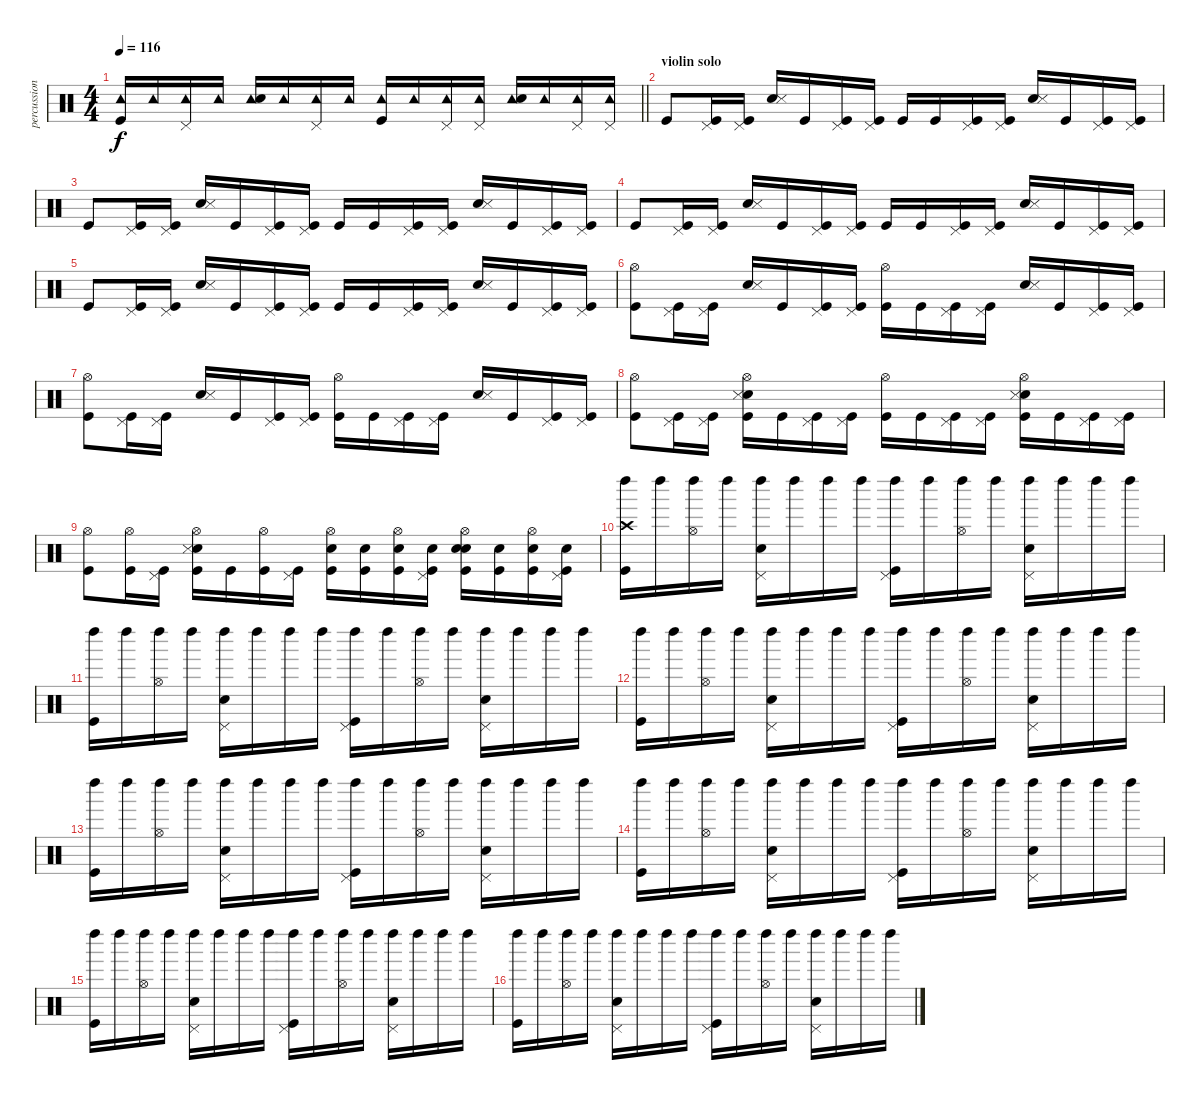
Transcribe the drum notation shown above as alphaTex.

\track ("percussion" "percussion") {instrument percussion}
\staff {score}
\articulation defaults
\ts (4 4)
\tempo 116
\clef neutral
\barLineRight lightlight
\ks c
("Tambourine (hit)" "Kick (hit)").16{dy f} "Tambourine (hit)".16 ("Tambourine (hit)" "Pedal Hi-Hat (hit)").16 "Tambourine (hit)".16 ("Tambourine (hit)" "Electric Snare (hit)").16 "Tambourine (hit)".16 ("Tambourine (hit)" "Pedal Hi-Hat (hit)").16 "Tambourine (hit)".16 ("Tambourine (hit)" "Kick (hit)").16 "Tambourine (hit)".16 ("Tambourine (hit)" "Pedal Hi-Hat (hit)").16 ("Tambourine (hit)" "Pedal Hi-Hat (hit)").16 ("Tambourine (hit)" "Electric Snare (hit)").16 "Tambourine (hit)".16 ("Tambourine (hit)" "Pedal Hi-Hat (hit)").16 ("Tambourine (hit)" "Pedal Hi-Hat (hit)").16 |
\section ("" "violin solo")
"Kick (hit)".8 ("Pedal Hi-Hat (hit)" "Kick (hit)").16 ("Pedal Hi-Hat (hit)" "Kick (hit)").16 ("Hand Clap (hit)" "Snare (side stick) 3").16 "Kick (hit)".16 ("Pedal Hi-Hat (hit)" "Kick (hit)").16 ("Pedal Hi-Hat (hit)" "Kick (hit)").16 "Kick (hit)".16 "Kick (hit)".16 ("Pedal Hi-Hat (hit)" "Kick (hit)").16 ("Pedal Hi-Hat (hit)" "Kick (hit)").16 ("Hand Clap (hit)" "Snare (side stick) 3").16 "Kick (hit)".16 ("Pedal Hi-Hat (hit)" "Kick (hit)").16 ("Pedal Hi-Hat (hit)" "Kick (hit)").16 |
"Kick (hit)".8 ("Pedal Hi-Hat (hit)" "Kick (hit)").16 ("Pedal Hi-Hat (hit)" "Kick (hit)").16 ("Hand Clap (hit)" "Snare (side stick) 3").16 "Kick (hit)".16 ("Pedal Hi-Hat (hit)" "Kick (hit)").16 ("Pedal Hi-Hat (hit)" "Kick (hit)").16 "Kick (hit)".16 "Kick (hit)".16 ("Pedal Hi-Hat (hit)" "Kick (hit)").16 ("Pedal Hi-Hat (hit)" "Kick (hit)").16 ("Hand Clap (hit)" "Snare (side stick) 3").16 "Kick (hit)".16 ("Pedal Hi-Hat (hit)" "Kick (hit)").16 ("Pedal Hi-Hat (hit)" "Kick (hit)").16 |
"Kick (hit)".8 ("Pedal Hi-Hat (hit)" "Kick (hit)").16 ("Pedal Hi-Hat (hit)" "Kick (hit)").16 ("Hand Clap (hit)" "Snare (side stick) 3").16 "Kick (hit)".16 ("Pedal Hi-Hat (hit)" "Kick (hit)").16 ("Pedal Hi-Hat (hit)" "Kick (hit)").16 "Kick (hit)".16 "Kick (hit)".16 ("Pedal Hi-Hat (hit)" "Kick (hit)").16 ("Pedal Hi-Hat (hit)" "Kick (hit)").16 ("Hand Clap (hit)" "Snare (side stick) 3").16 "Kick (hit)".16 ("Pedal Hi-Hat (hit)" "Kick (hit)").16 ("Pedal Hi-Hat (hit)" "Kick (hit)").16 |
"Kick (hit)".8 ("Pedal Hi-Hat (hit)" "Kick (hit)").16 ("Pedal Hi-Hat (hit)" "Kick (hit)").16 ("Hand Clap (hit)" "Snare (side stick) 3").16 "Kick (hit)".16 ("Pedal Hi-Hat (hit)" "Kick (hit)").16 ("Pedal Hi-Hat (hit)" "Kick (hit)").16 "Kick (hit)".16 "Kick (hit)".16 ("Pedal Hi-Hat (hit)" "Kick (hit)").16 ("Pedal Hi-Hat (hit)" "Kick (hit)").16 ("Hand Clap (hit)" "Snare (side stick) 3").16 "Kick (hit)".16 ("Pedal Hi-Hat (hit)" "Kick (hit)").16 ("Pedal Hi-Hat (hit)" "Kick (hit)").16 |
("Hi-Hat (open)" "Kick (hit)").8 ("Pedal Hi-Hat (hit)" "Kick (hit)").16 ("Pedal Hi-Hat (hit)" "Kick (hit)").16 ("Hand Clap (hit)" "Snare (side stick) 3").16 "Kick (hit)".16 ("Pedal Hi-Hat (hit)" "Kick (hit)").16 ("Pedal Hi-Hat (hit)" "Kick (hit)").16 ("Hi-Hat (open)" "Kick (hit)").16 "Kick (hit)".16 ("Pedal Hi-Hat (hit)" "Kick (hit)").16 ("Pedal Hi-Hat (hit)" "Kick (hit)").16 ("Hand Clap (hit)" "Snare (side stick) 3").16 "Kick (hit)".16 ("Pedal Hi-Hat (hit)" "Kick (hit)").16 ("Pedal Hi-Hat (hit)" "Kick (hit)").16 |
("Hi-Hat (open)" "Kick (hit)").8 ("Pedal Hi-Hat (hit)" "Kick (hit)").16 ("Pedal Hi-Hat (hit)" "Kick (hit)").16 ("Hand Clap (hit)" "Snare (side stick) 3").16 "Kick (hit)".16 ("Pedal Hi-Hat (hit)" "Kick (hit)").16 ("Pedal Hi-Hat (hit)" "Kick (hit)").16 ("Hi-Hat (open)" "Kick (hit)").16 "Kick (hit)".16 ("Pedal Hi-Hat (hit)" "Kick (hit)").16 ("Pedal Hi-Hat (hit)" "Kick (hit)").16 ("Hand Clap (hit)" "Snare (side stick) 3").16 "Kick (hit)".16 ("Pedal Hi-Hat (hit)" "Kick (hit)").16 ("Pedal Hi-Hat (hit)" "Kick (hit)").16 |
("Hi-Hat (open)" "Kick (hit)").8 ("Pedal Hi-Hat (hit)" "Kick (hit)").16 ("Pedal Hi-Hat (hit)" "Kick (hit)").16 ("Hand Clap (hit)" "Snare (side stick) 3" "Hi-Hat (open)" "Kick (hit)").16 "Kick (hit)".16 ("Pedal Hi-Hat (hit)" "Kick (hit)").16 ("Pedal Hi-Hat (hit)" "Kick (hit)").16 ("Hi-Hat (open)" "Kick (hit)").16 "Kick (hit)".16 ("Pedal Hi-Hat (hit)" "Kick (hit)").16 ("Pedal Hi-Hat (hit)" "Kick (hit)").16 ("Hand Clap (hit)" "Snare (side stick) 3" "Hi-Hat (open)" "Kick (hit)").16 "Kick (hit)".16 ("Pedal Hi-Hat (hit)" "Kick (hit)").16 ("Pedal Hi-Hat (hit)" "Kick (hit)").16 |
("Hi-Hat (open)" "Kick (hit)").8 ("Hi-Hat (open)" "Kick (hit)").16 ("Pedal Hi-Hat (hit)" "Kick (hit)").16 ("Hand Clap (hit)" "Snare (side stick) 3" "Hi-Hat (open)" "Kick (hit)").16 "Kick (hit)".16 ("Hi-Hat (open)" "Kick (hit)").16 ("Pedal Hi-Hat (hit)" "Kick (hit)").16 ("Electric Snare (hit)" "Hi-Hat (open)" "Kick (hit)").16 ("Electric Snare (hit)" "Kick (hit)").16 ("Electric Snare (hit)" "Hi-Hat (open)" "Kick (hit)").16 ("Electric Snare (hit)" "Pedal Hi-Hat (hit)" "Kick (hit)").16 ("Hand Clap (hit)" "Electric Snare (hit)" "Hi-Hat (open)" "Kick (hit)").16 ("Electric Snare (hit)" "Kick (hit)").16 ("Electric Snare (hit)" "Hi-Hat (open)" "Kick (hit)").16 ("Electric Snare (hit)" "Pedal Hi-Hat (hit)" "Kick (hit)").16 |
("Crash high (hit)" "Left Maraca (hit)" "Kick (hit)").16 "Left Maraca (hit)".16 ("Left Maraca (hit)" "Hi-Hat (open)").16 "Left Maraca (hit)".16 ("Left Maraca (hit)" "Electric Snare (hit)" "Pedal Hi-Hat (hit)").16 "Left Maraca (hit)".16 "Left Maraca (hit)".16 "Left Maraca (hit)".16 ("Left Maraca (hit)" "Pedal Hi-Hat (hit)" "Kick (hit)").16 "Left Maraca (hit)".16 ("Left Maraca (hit)" "Hi-Hat (open)").16 "Left Maraca (hit)".16 ("Left Maraca (hit)" "Electric Snare (hit)" "Pedal Hi-Hat (hit)").16 "Left Maraca (hit)".16 "Left Maraca (hit)".16 "Left Maraca (hit)".16 |
("Left Maraca (hit)" "Kick (hit)").16 "Left Maraca (hit)".16 ("Left Maraca (hit)" "Hi-Hat (open)").16 "Left Maraca (hit)".16 ("Left Maraca (hit)" "Electric Snare (hit)" "Pedal Hi-Hat (hit)").16 "Left Maraca (hit)".16 "Left Maraca (hit)".16 "Left Maraca (hit)".16 ("Left Maraca (hit)" "Pedal Hi-Hat (hit)" "Kick (hit)").16 "Left Maraca (hit)".16 ("Left Maraca (hit)" "Hi-Hat (open)").16 "Left Maraca (hit)".16 ("Left Maraca (hit)" "Electric Snare (hit)" "Pedal Hi-Hat (hit)").16 "Left Maraca (hit)".16 "Left Maraca (hit)".16 "Left Maraca (hit)".16 |
("Left Maraca (hit)" "Kick (hit)").16 "Left Maraca (hit)".16 ("Left Maraca (hit)" "Hi-Hat (open)").16 "Left Maraca (hit)".16 ("Left Maraca (hit)" "Electric Snare (hit)" "Pedal Hi-Hat (hit)").16 "Left Maraca (hit)".16 "Left Maraca (hit)".16 "Left Maraca (hit)".16 ("Left Maraca (hit)" "Pedal Hi-Hat (hit)" "Kick (hit)").16 "Left Maraca (hit)".16 ("Left Maraca (hit)" "Hi-Hat (open)").16 "Left Maraca (hit)".16 ("Left Maraca (hit)" "Electric Snare (hit)" "Pedal Hi-Hat (hit)").16 "Left Maraca (hit)".16 "Left Maraca (hit)".16 "Left Maraca (hit)".16 |
("Left Maraca (hit)" "Kick (hit)").16 "Left Maraca (hit)".16 ("Left Maraca (hit)" "Hi-Hat (open)").16 "Left Maraca (hit)".16 ("Left Maraca (hit)" "Electric Snare (hit)" "Pedal Hi-Hat (hit)").16 "Left Maraca (hit)".16 "Left Maraca (hit)".16 "Left Maraca (hit)".16 ("Left Maraca (hit)" "Pedal Hi-Hat (hit)" "Kick (hit)").16 "Left Maraca (hit)".16 ("Left Maraca (hit)" "Hi-Hat (open)").16 "Left Maraca (hit)".16 ("Left Maraca (hit)" "Electric Snare (hit)" "Pedal Hi-Hat (hit)").16 "Left Maraca (hit)".16 "Left Maraca (hit)".16 "Left Maraca (hit)".16 |
("Left Maraca (hit)" "Kick (hit)").16 "Left Maraca (hit)".16 ("Left Maraca (hit)" "Hi-Hat (open)").16 "Left Maraca (hit)".16 ("Left Maraca (hit)" "Electric Snare (hit)" "Pedal Hi-Hat (hit)").16 "Left Maraca (hit)".16 "Left Maraca (hit)".16 "Left Maraca (hit)".16 ("Left Maraca (hit)" "Pedal Hi-Hat (hit)" "Kick (hit)").16 "Left Maraca (hit)".16 ("Left Maraca (hit)" "Hi-Hat (open)").16 "Left Maraca (hit)".16 ("Left Maraca (hit)" "Electric Snare (hit)" "Pedal Hi-Hat (hit)").16 "Left Maraca (hit)".16 "Left Maraca (hit)".16 "Left Maraca (hit)".16 |
("Left Maraca (hit)" "Kick (hit)").16 "Left Maraca (hit)".16 ("Left Maraca (hit)" "Hi-Hat (open)").16 "Left Maraca (hit)".16 ("Left Maraca (hit)" "Electric Snare (hit)" "Pedal Hi-Hat (hit)").16 "Left Maraca (hit)".16 "Left Maraca (hit)".16 "Left Maraca (hit)".16 ("Left Maraca (hit)" "Pedal Hi-Hat (hit)" "Kick (hit)").16 "Left Maraca (hit)".16 ("Left Maraca (hit)" "Hi-Hat (open)").16 "Left Maraca (hit)".16 ("Left Maraca (hit)" "Electric Snare (hit)" "Pedal Hi-Hat (hit)").16 "Left Maraca (hit)".16 "Left Maraca (hit)".16 "Left Maraca (hit)".16 |
("Left Maraca (hit)" "Kick (hit)").16 "Left Maraca (hit)".16 ("Left Maraca (hit)" "Hi-Hat (open)").16 "Left Maraca (hit)".16 ("Left Maraca (hit)" "Electric Snare (hit)" "Pedal Hi-Hat (hit)").16 "Left Maraca (hit)".16 "Left Maraca (hit)".16 "Left Maraca (hit)".16 ("Left Maraca (hit)" "Pedal Hi-Hat (hit)" "Kick (hit)").16 "Left Maraca (hit)".16 ("Left Maraca (hit)" "Hi-Hat (open)").16 "Left Maraca (hit)".16 ("Left Maraca (hit)" "Electric Snare (hit)" "Pedal Hi-Hat (hit)").16 "Left Maraca (hit)".16 "Left Maraca (hit)".16 "Left Maraca (hit)".16
